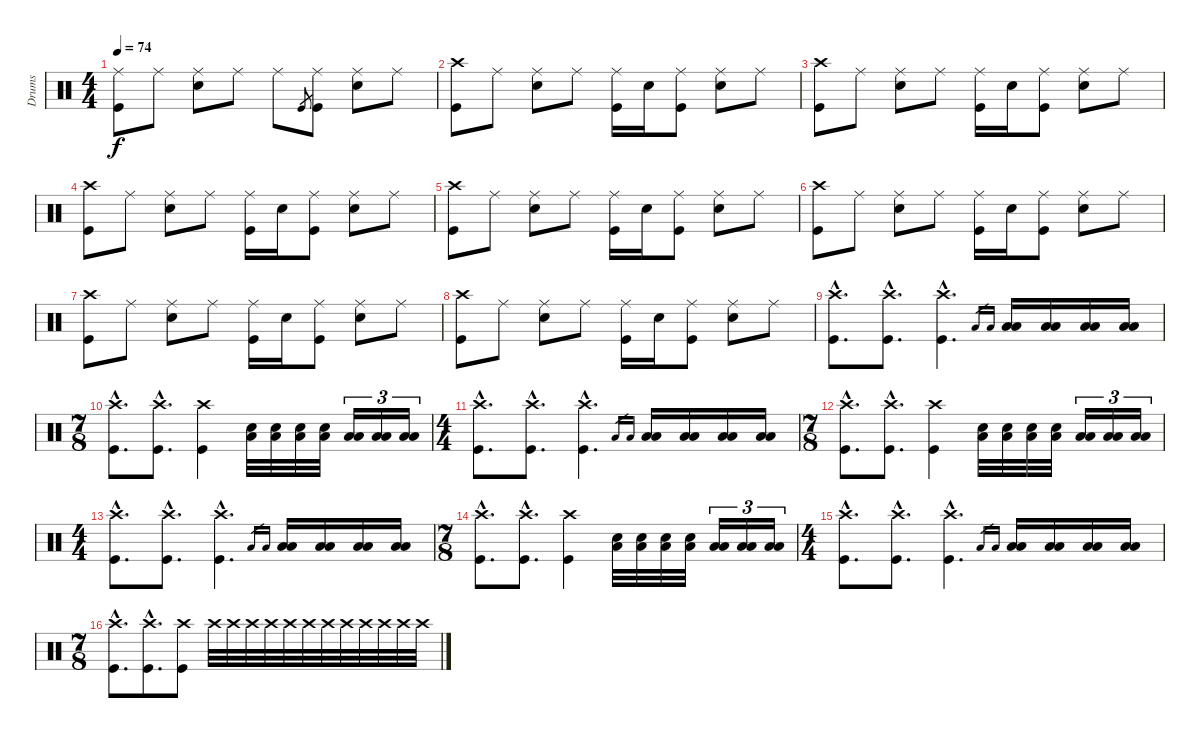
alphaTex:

\track ("Drums" "Drums") {instrument percussion}
\staff {score}
\articulation defaults
\ts (4 4)
\tempo 74
\clef neutral
\ks c
("Ride (middle)" "Kick (hit)").8{dy f} "Ride (middle)".8 ("Ride (middle)" "Snare (hit) 2").8 "Ride (middle)".8 "Ride (middle)".8 "Kick (hit)".8{gr} ("Ride (middle)" "Kick (hit)").8 ("Ride (middle)" "Snare (hit) 2").8 "Ride (middle)".8 |
("Crash high (hit)" "Kick (hit)").8 "Ride (middle)".8 ("Ride (middle)" "Snare (hit) 2").8 "Ride (middle)".8 ("Ride (middle)" "Kick (hit)").16 "Snare (hit) 2".16 ("Ride (middle)" "Kick (hit)").8 ("Ride (middle)" "Snare (hit) 2").8 "Ride (middle)".8 |
("Crash high (hit)" "Kick (hit)").8 "Ride (middle)".8 ("Ride (middle)" "Snare (hit) 2").8 "Ride (middle)".8 ("Ride (middle)" "Kick (hit)").16 "Snare (hit) 2".16 ("Ride (middle)" "Kick (hit)").8 ("Ride (middle)" "Snare (hit) 2").8 "Ride (middle)".8 |
("Crash high (hit)" "Kick (hit)").8 "Ride (middle)".8 ("Ride (middle)" "Snare (hit) 2").8 "Ride (middle)".8 ("Ride (middle)" "Kick (hit)").16 "Snare (hit) 2".16 ("Ride (middle)" "Kick (hit)").8 ("Ride (middle)" "Snare (hit) 2").8 "Ride (middle)".8 |
("Crash high (hit)" "Kick (hit)").8 "Ride (middle)".8 ("Ride (middle)" "Snare (hit) 2").8 "Ride (middle)".8 ("Ride (middle)" "Kick (hit)").16 "Snare (hit) 2".16 ("Ride (middle)" "Kick (hit)").8 ("Ride (middle)" "Snare (hit) 2").8 "Ride (middle)".8 |
("Crash high (hit)" "Kick (hit)").8 "Ride (middle)".8 ("Ride (middle)" "Snare (hit) 2").8 "Ride (middle)".8 ("Ride (middle)" "Kick (hit)").16 "Snare (hit) 2".16 ("Ride (middle)" "Kick (hit)").8 ("Ride (middle)" "Snare (hit) 2").8 "Ride (middle)".8 |
("Crash high (hit)" "Kick (hit)").8 "Ride (middle)".8 ("Ride (middle)" "Snare (hit) 2").8 "Ride (middle)".8 ("Ride (middle)" "Kick (hit)").16 "Snare (hit) 2".16 ("Ride (middle)" "Kick (hit)").8 ("Ride (middle)" "Snare (hit) 2").8 "Ride (middle)".8 |
("Crash high (hit)" "Kick (hit)").8 "Ride (middle)".8 ("Ride (middle)" "Snare (hit) 2").8 "Ride (middle)".8 ("Ride (middle)" "Kick (hit)").16 "Snare (hit) 2".16 ("Ride (middle)" "Kick (hit)").8 ("Ride (middle)" "Snare (hit) 2").8 "Ride (middle)".8 |
("Crash high (hit)"{hac} "Kick (hit)"{hac}).8{d} ("Crash high (hit)"{hac} "Kick (hit)"{hac}).8{d} ("Crash high (hit)"{hac} "Kick (hit)"{hac}).4{d} "Low Tom (hit)".16{gr} "Low Floor Tom (hit)".16{gr} ("Low Tom (hit)" "Low Floor Tom (hit)").16 ("Low Tom (hit)" "Low Floor Tom (hit)").16 ("Low Tom (hit)" "Low Floor Tom (hit)").16 ("Low Tom (hit)" "Low Floor Tom (hit)").16 |
\ts (7 8)
("Crash high (hit)"{hac} "Kick (hit)"{hac}).8{d} ("Crash high (hit)"{hac} "Kick (hit)"{hac}).8{d} ("Crash high (hit)" "Kick (hit)").4 ("Low Floor Tom (hit)" "Snare (hit) 2").32 ("Low Floor Tom (hit)" "Snare (hit) 2").32 ("Low Floor Tom (hit)" "Snare (hit) 2").32 ("Low Floor Tom (hit)" "Snare (hit) 2").32 ("Low Tom (hit)" "Low Floor Tom (hit)").16{tu (3 2)} ("Low Tom (hit)" "Low Floor Tom (hit)").16{tu (3 2)} ("Low Tom (hit)" "Low Floor Tom (hit)").16{tu (3 2)} |
\ts (4 4)
("Crash high (hit)"{hac} "Kick (hit)"{hac}).8{d} ("Crash high (hit)"{hac} "Kick (hit)"{hac}).8{d} ("Crash high (hit)"{hac} "Kick (hit)"{hac}).4{d} "Low Tom (hit)".16{gr} "Low Floor Tom (hit)".16{gr} ("Low Tom (hit)" "Low Floor Tom (hit)").16 ("Low Tom (hit)" "Low Floor Tom (hit)").16 ("Low Tom (hit)" "Low Floor Tom (hit)").16 ("Low Tom (hit)" "Low Floor Tom (hit)").16 |
\ts (7 8)
("Crash high (hit)"{hac} "Kick (hit)"{hac}).8{d} ("Crash high (hit)"{hac} "Kick (hit)"{hac}).8{d} ("Crash high (hit)" "Kick (hit)").4 ("Low Floor Tom (hit)" "Snare (hit) 2").32 ("Low Floor Tom (hit)" "Snare (hit) 2").32 ("Low Floor Tom (hit)" "Snare (hit) 2").32 ("Low Floor Tom (hit)" "Snare (hit) 2").32 ("Low Tom (hit)" "Low Floor Tom (hit)").16{tu (3 2)} ("Low Tom (hit)" "Low Floor Tom (hit)").16{tu (3 2)} ("Low Tom (hit)" "Low Floor Tom (hit)").16{tu (3 2)} |
\ts (4 4)
("Crash high (hit)"{hac} "Kick (hit)"{hac}).8{d} ("Crash high (hit)"{hac} "Kick (hit)"{hac}).8{d} ("Crash high (hit)"{hac} "Kick (hit)"{hac}).4{d} "Low Tom (hit)".16{gr} "Low Floor Tom (hit)".16{gr} ("Low Tom (hit)" "Low Floor Tom (hit)").16 ("Low Tom (hit)" "Low Floor Tom (hit)").16 ("Low Tom (hit)" "Low Floor Tom (hit)").16 ("Low Tom (hit)" "Low Floor Tom (hit)").16 |
\ts (7 8)
("Crash high (hit)"{hac} "Kick (hit)"{hac}).8{d} ("Crash high (hit)"{hac} "Kick (hit)"{hac}).8{d} ("Crash high (hit)" "Kick (hit)").4 ("Low Floor Tom (hit)" "Snare (hit) 2").32 ("Low Floor Tom (hit)" "Snare (hit) 2").32 ("Low Floor Tom (hit)" "Snare (hit) 2").32 ("Low Floor Tom (hit)" "Snare (hit) 2").32 ("Low Tom (hit)" "Low Floor Tom (hit)").16{tu (3 2)} ("Low Tom (hit)" "Low Floor Tom (hit)").16{tu (3 2)} ("Low Tom (hit)" "Low Floor Tom (hit)").16{tu (3 2)} |
\ts (4 4)
("Crash high (hit)"{hac} "Kick (hit)"{hac}).8{d} ("Crash high (hit)"{hac} "Kick (hit)"{hac}).8{d} ("Crash high (hit)"{hac} "Kick (hit)"{hac}).4{d} "Low Tom (hit)".16{gr} "Low Floor Tom (hit)".16{gr} ("Low Tom (hit)" "Low Floor Tom (hit)").16 ("Low Tom (hit)" "Low Floor Tom (hit)").16 ("Low Tom (hit)" "Low Floor Tom (hit)").16 ("Low Tom (hit)" "Low Floor Tom (hit)").16 |
\ts (7 8)
("Crash high (hit)"{hac} "Kick (hit)"{hac}).8{d} ("Crash high (hit)"{hac} "Kick (hit)"{hac}).8{d} ("Crash high (hit)" "Kick (hit)").8 "Crash high (hit)".32 "Crash high (hit)".32 "Crash high (hit)".32 "Crash high (hit)".32 "Crash high (hit)".32 "Crash high (hit)".32 "Crash high (hit)".32 "Crash high (hit)".32 "Crash high (hit)".32 "Crash high (hit)".32 "Crash high (hit)".32 "Crash high (hit)".32
